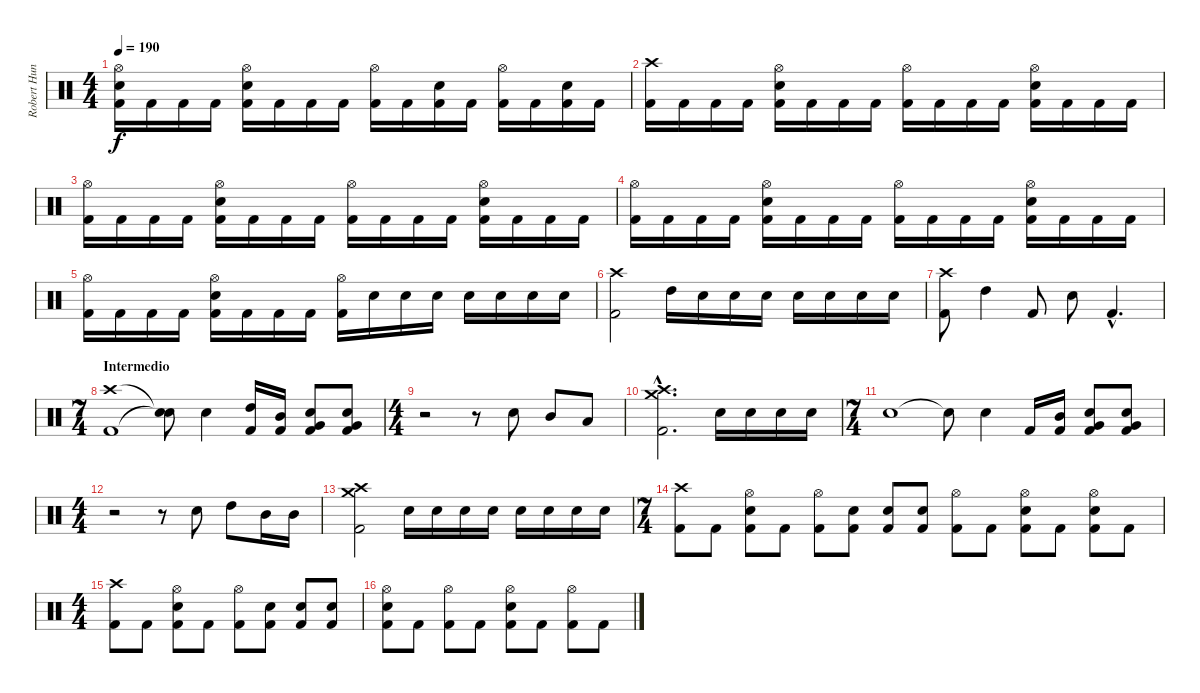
\track ("Robert Hunecke" "Robert Hun") {instrument percussion}
\staff {score}
\articulation defaults
\ts (4 4)
\tempo 190
\clef neutral
\ks c
("Kick (hit) 2" "Electric Snare (hit)" "Hi-Hat (open)").16{dy f} "Kick (hit) 2".16 "Kick (hit) 2".16 "Kick (hit) 2".16 ("Kick (hit) 2" "Electric Snare (hit)" "Hi-Hat (open)").16 "Kick (hit) 2".16 "Kick (hit) 2".16 "Kick (hit) 2".16 ("Kick (hit) 2" "Hi-Hat (open)").16 "Kick (hit) 2".16 ("Kick (hit) 2" "Electric Snare (hit)").16 "Kick (hit) 2".16 ("Kick (hit) 2" "Hi-Hat (open)").16 "Kick (hit) 2".16 ("Kick (hit) 2" "Electric Snare (hit)").16 "Kick (hit) 2".16 |
("Kick (hit) 2" "Crash high (hit)").16 "Kick (hit) 2".16 "Kick (hit) 2".16 "Kick (hit) 2".16 ("Kick (hit) 2" "Electric Snare (hit)" "Hi-Hat (open)").16 "Kick (hit) 2".16 "Kick (hit) 2".16 "Kick (hit) 2".16 ("Kick (hit) 2" "Hi-Hat (open)").16 "Kick (hit) 2".16 "Kick (hit) 2".16 "Kick (hit) 2".16 ("Kick (hit) 2" "Electric Snare (hit)" "Hi-Hat (open)").16 "Kick (hit) 2".16 "Kick (hit) 2".16 "Kick (hit) 2".16 |
("Kick (hit) 2" "Hi-Hat (open)").16 "Kick (hit) 2".16 "Kick (hit) 2".16 "Kick (hit) 2".16 ("Kick (hit) 2" "Electric Snare (hit)" "Hi-Hat (open)").16 "Kick (hit) 2".16 "Kick (hit) 2".16 "Kick (hit) 2".16 ("Kick (hit) 2" "Hi-Hat (open)").16 "Kick (hit) 2".16 "Kick (hit) 2".16 "Kick (hit) 2".16 ("Kick (hit) 2" "Electric Snare (hit)" "Hi-Hat (open)").16 "Kick (hit) 2".16 "Kick (hit) 2".16 "Kick (hit) 2".16 |
("Kick (hit) 2" "Hi-Hat (open)").16 "Kick (hit) 2".16 "Kick (hit) 2".16 "Kick (hit) 2".16 ("Kick (hit) 2" "Electric Snare (hit)" "Hi-Hat (open)").16 "Kick (hit) 2".16 "Kick (hit) 2".16 "Kick (hit) 2".16 ("Kick (hit) 2" "Hi-Hat (open)").16 "Kick (hit) 2".16 "Kick (hit) 2".16 "Kick (hit) 2".16 ("Kick (hit) 2" "Electric Snare (hit)" "Hi-Hat (open)").16 "Kick (hit) 2".16 "Kick (hit) 2".16 "Kick (hit) 2".16 |
("Kick (hit) 2" "Hi-Hat (open)").16 "Kick (hit) 2".16 "Kick (hit) 2".16 "Kick (hit) 2".16 ("Kick (hit) 2" "Electric Snare (hit)" "Hi-Hat (open)").16 "Kick (hit) 2".16 "Kick (hit) 2".16 "Kick (hit) 2".16 ("Kick (hit) 2" "Hi-Hat (open)").16 "Electric Snare (hit)".16 "Electric Snare (hit)".16 "Electric Snare (hit)".16 "Electric Snare (hit)".16 "Electric Snare (hit)".16 "Electric Snare (hit)".16 "Electric Snare (hit)".16 |
("Kick (hit) 2" "Crash high (hit)").2 "High Tom (hit)".16 "Electric Snare (hit)".16 "Electric Snare (hit)".16 "Electric Snare (hit)".16 "Electric Snare (hit)".16 "Electric Snare (hit)".16 "Electric Snare (hit)".16 "Electric Snare (hit)".16 |
("Kick (hit) 2" "Crash high (hit)").8 "High Tom (hit)".4 "Kick (hit) 2".8 "Electric Snare (hit)".8 "Kick (hit) 2"{hac}.4{d} |
\ts (7 4)
\section ("" "Intermedio")
("Kick (hit) 2" "Crash high (hit)").1 ("Snare (hit)"{t} "Snare (hit)"{t}).8 "Electric Snare (hit)".4 ("Kick (hit) 2" "High Tom (hit)").16 ("Kick (hit) 2" "Mid Tom (hit)").16 ("Kick (hit) 2" "Electric Snare (hit)" "Very Low Tom (hit)").8 ("Kick (hit) 2" "Electric Snare (hit)" "Very Low Tom (hit)").8 |
\ts (4 4)
r.2 r.8 "Electric Snare (hit)".8 "Mid Tom (hit)".8 "Low Tom (hit)".8 |
("Kick (hit) 2"{hac} "Crash high (hit)"{hac} "Crash medium (hit)"{hac}).2{d} "Electric Snare (hit)".16 "Electric Snare (hit)".16 "Electric Snare (hit)".16 "Electric Snare (hit)".16 |
\ts (7 4)
"Electric Snare (hit)".1 "Snare (hit)"{t}.8 "Electric Snare (hit)".4 "Kick (hit) 2".16 ("Kick (hit) 2" "Mid Tom (hit)").16 ("Kick (hit) 2" "Electric Snare (hit)" "Very Low Tom (hit)").8 ("Kick (hit) 2" "Electric Snare (hit)" "Very Low Tom (hit)").8 |
\ts (4 4)
r.2 r.8 "Electric Snare (hit)".8 "High Tom (hit)".8 "Mid Tom (hit)".16 "Mid Tom (hit)".16 |
("Kick (hit) 2" "Crash high (hit)" "Crash medium (hit)").2 "Electric Snare (hit)".16 "Electric Snare (hit)".16 "Electric Snare (hit)".16 "Electric Snare (hit)".16 "Electric Snare (hit)".16 "Electric Snare (hit)".16 "Electric Snare (hit)".16 "Electric Snare (hit)".16 |
\ts (7 4)
("Kick (hit) 2" "Crash high (hit)").8 "Kick (hit) 2".8 ("Kick (hit) 2" "Electric Snare (hit)" "Hi-Hat (open)").8 "Kick (hit) 2".8 ("Kick (hit) 2" "Hi-Hat (open)").8 ("Kick (hit) 2" "Electric Snare (hit)").8 ("Kick (hit) 2" "Electric Snare (hit)").8 ("Kick (hit) 2" "Electric Snare (hit)").8 ("Kick (hit) 2" "Hi-Hat (open)").8 "Kick (hit) 2".8 ("Kick (hit) 2" "Electric Snare (hit)" "Hi-Hat (open)").8 "Kick (hit) 2".8 ("Kick (hit) 2" "Electric Snare (hit)" "Hi-Hat (open)").8 "Kick (hit) 2".8 |
\ts (4 4)
("Kick (hit) 2" "Crash high (hit)").8 "Kick (hit) 2".8 ("Kick (hit) 2" "Electric Snare (hit)" "Hi-Hat (open)").8 "Kick (hit) 2".8 ("Kick (hit) 2" "Hi-Hat (open)").8 ("Kick (hit) 2" "Electric Snare (hit)").8 ("Kick (hit) 2" "Electric Snare (hit)").8 ("Kick (hit) 2" "Electric Snare (hit)").8 |
("Kick (hit) 2" "Electric Snare (hit)" "Hi-Hat (open)").8 "Kick (hit) 2".8 ("Kick (hit) 2" "Hi-Hat (open)").8 "Kick (hit) 2".8 ("Kick (hit) 2" "Electric Snare (hit)" "Hi-Hat (open)").8 "Kick (hit) 2".8 ("Kick (hit) 2" "Hi-Hat (open)").8 "Kick (hit) 2".8
